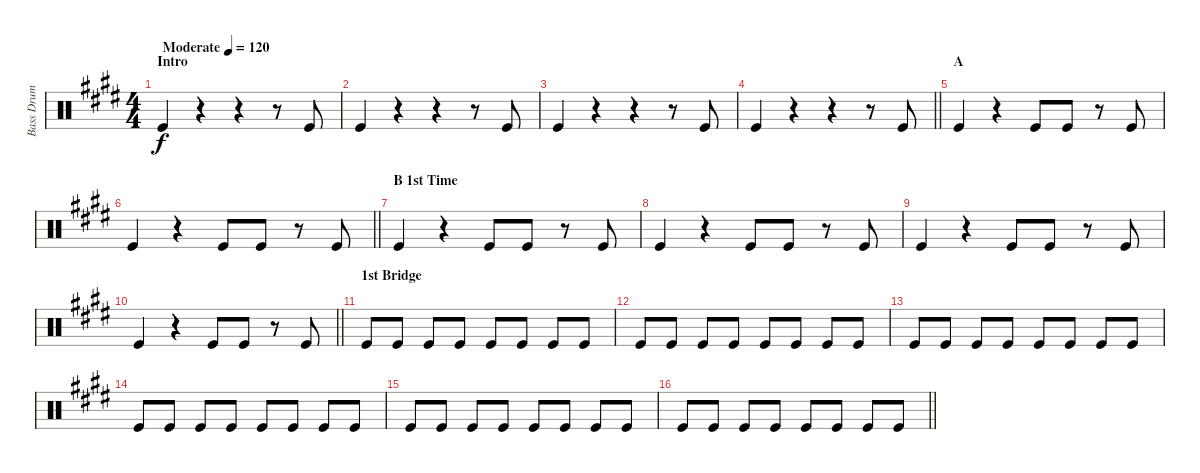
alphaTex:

\track ("Bass Drum" "Bass Drum") {instrument percussion}
\staff {score}
\articulation defaults
\ts (4 4)
\section ("" "Intro")
\tempo (120 "Moderate")
\clef neutral
\ks e "Kick (hit)".4{dy f}
r.4 r.4 r.8 "Kick (hit)".8 |
"Kick (hit)".4 r.4 r.4 r.8 "Kick (hit)".8 |
"Kick (hit)".4 r.4 r.4 r.8 "Kick (hit)".8 |
\barLineRight lightlight "Kick (hit)".4
r.4 r.4 r.8 "Kick (hit)".8 |
\section ("" "A")
"Kick (hit)".4 r.4 "Kick (hit)".8 "Kick (hit)".8 r.8 "Kick (hit)".8 |
\barLineRight lightlight "Kick (hit)".4
r.4 "Kick (hit)".8 "Kick (hit)".8 r.8 "Kick (hit)".8 |
\section ("" "B 1st Time")
"Kick (hit)".4 r.4 "Kick (hit)".8 "Kick (hit)".8 r.8 "Kick (hit)".8 |
"Kick (hit)".4 r.4 "Kick (hit)".8 "Kick (hit)".8 r.8 "Kick (hit)".8 |
"Kick (hit)".4 r.4 "Kick (hit)".8 "Kick (hit)".8 r.8 "Kick (hit)".8 |
\barLineRight lightlight "Kick (hit)".4
r.4 "Kick (hit)".8 "Kick (hit)".8 r.8 "Kick (hit)".8 |
\section ("" "1st Bridge")
"Kick (hit)".8 "Kick (hit)".8 "Kick (hit)".8 "Kick (hit)".8 "Kick (hit)".8 "Kick (hit)".8 "Kick (hit)".8 "Kick (hit)".8 |
"Kick (hit)".8 "Kick (hit)".8 "Kick (hit)".8 "Kick (hit)".8 "Kick (hit)".8 "Kick (hit)".8 "Kick (hit)".8 "Kick (hit)".8 |
"Kick (hit)".8 "Kick (hit)".8 "Kick (hit)".8 "Kick (hit)".8 "Kick (hit)".8 "Kick (hit)".8 "Kick (hit)".8 "Kick (hit)".8 |
"Kick (hit)".8 "Kick (hit)".8 "Kick (hit)".8 "Kick (hit)".8 "Kick (hit)".8 "Kick (hit)".8 "Kick (hit)".8 "Kick (hit)".8 |
"Kick (hit)".8 "Kick (hit)".8 "Kick (hit)".8 "Kick (hit)".8 "Kick (hit)".8 "Kick (hit)".8 "Kick (hit)".8 "Kick (hit)".8 |
\barLineRight lightlight "Kick (hit)".8 "Kick (hit)".8 "Kick (hit)".8 "Kick (hit)".8 "Kick (hit)".8 "Kick (hit)".8 "Kick (hit)".8 "Kick (hit)".8
